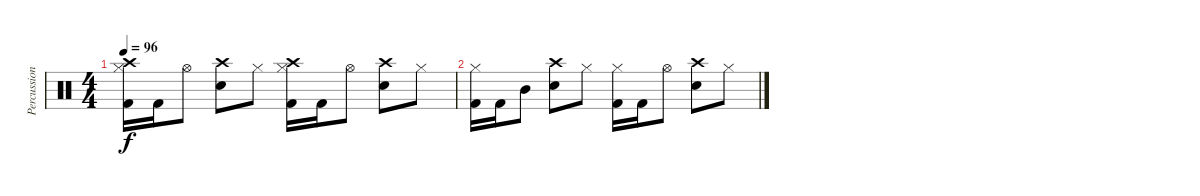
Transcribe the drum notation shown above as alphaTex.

\track ("Percussion" "Percussion") {instrument percussion}
\staff {score}
\articulation defaults
\ts (4 4)
\tempo 96
\clef neutral
\ks c
("Hi-Hat (closed)" "Crash high (hit)" "Kick (hit) 2").16{dy f} "Kick (hit) 2".16 "Hi-Hat (open)".8 ("Crash high (hit)" "Snare (hit) 2").8 "Hi-Hat (closed)".8 ("Hi-Hat (closed)" "Crash high (hit)" "Kick (hit) 2").16 "Kick (hit) 2".16 "Hi-Hat (open)".8 ("Crash high (hit)" "Snare (hit) 2").8 "Hi-Hat (closed)".8 |
("Hi-Hat (closed)" "Kick (hit) 2").16 "Kick (hit) 2".16 "Mid Tom (hit)".8 ("Crash high (hit)" "Snare (hit) 2").8 "Hi-Hat (closed)".8 ("Hi-Hat (closed)" "Kick (hit) 2").16 "Kick (hit) 2".16 "Hi-Hat (open)".8 ("Crash high (hit)" "Snare (hit) 2").8 "Hi-Hat (closed)".8
